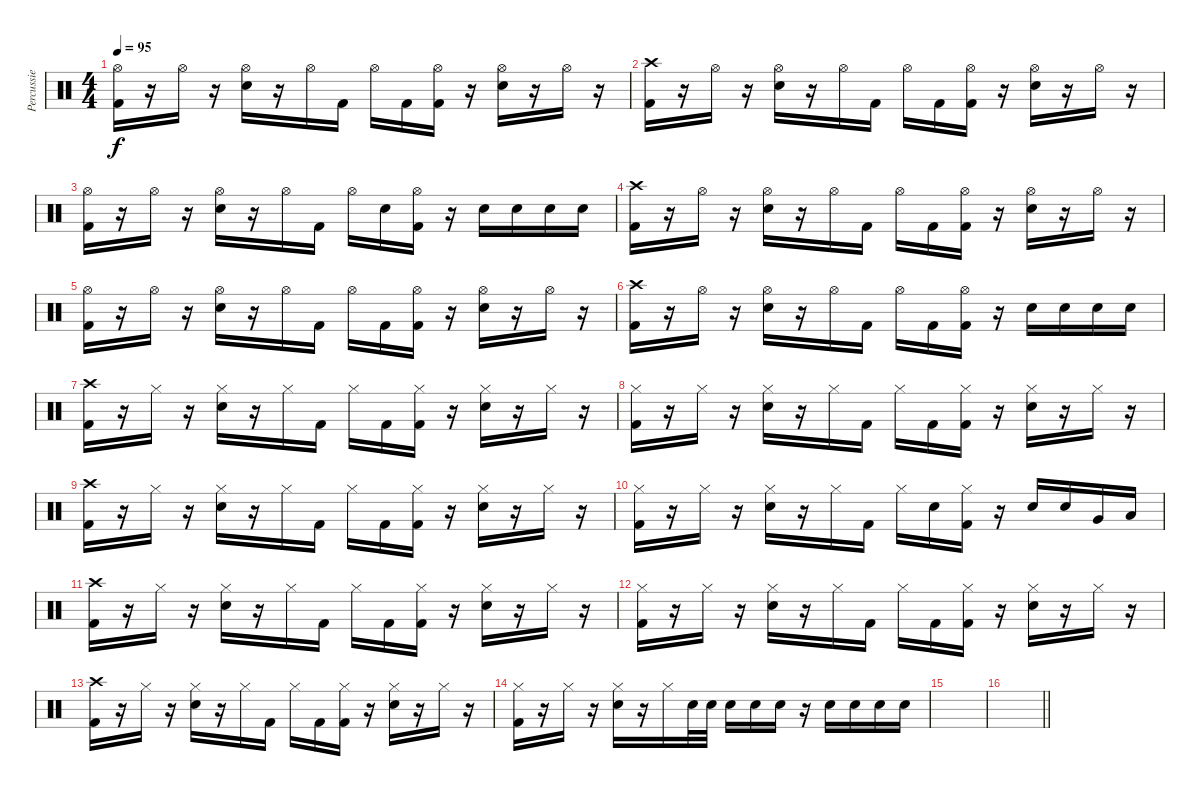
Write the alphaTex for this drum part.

\track ("Percussie" "Percussie") {instrument percussion}
\staff {score}
\articulation defaults
\ts (4 4)
\tempo 95
\clef neutral
\ks c
("Hi-Hat (open)" "Kick (hit) 2").16{dy f} r.16 "Hi-Hat (open)".16 r.16 ("Hi-Hat (open)" "Electric Snare (hit)").16 r.16 "Hi-Hat (open)".16 "Kick (hit) 2".16 "Hi-Hat (open)".16 "Kick (hit) 2".16 ("Hi-Hat (open)" "Kick (hit) 2").16 r.16 ("Hi-Hat (open)" "Electric Snare (hit)").16 r.16 "Hi-Hat (open)".16 r.16 |
("Crash high (hit)" "Kick (hit) 2").16 r.16 "Hi-Hat (open)".16 r.16 ("Hi-Hat (open)" "Electric Snare (hit)").16 r.16 "Hi-Hat (open)".16 "Kick (hit) 2".16 "Hi-Hat (open)".16 "Kick (hit) 2".16 ("Hi-Hat (open)" "Kick (hit) 2").16 r.16 ("Hi-Hat (open)" "Electric Snare (hit)").16 r.16 "Hi-Hat (open)".16 r.16 |
("Hi-Hat (open)" "Kick (hit) 2").16 r.16 "Hi-Hat (open)".16 r.16 ("Hi-Hat (open)" "Electric Snare (hit)").16 r.16 "Hi-Hat (open)".16 "Kick (hit) 2".16 "Hi-Hat (open)".16 "Electric Snare (hit)".16 ("Hi-Hat (open)" "Kick (hit) 2").16 r.16 "Electric Snare (hit)".16 "Electric Snare (hit)".16 "Electric Snare (hit)".16 "Electric Snare (hit)".16 |
("Crash high (hit)" "Kick (hit) 2").16 r.16 "Hi-Hat (open)".16 r.16 ("Hi-Hat (open)" "Electric Snare (hit)").16 r.16 "Hi-Hat (open)".16 "Kick (hit) 2".16 "Hi-Hat (open)".16 "Kick (hit) 2".16 ("Hi-Hat (open)" "Kick (hit) 2").16 r.16 ("Hi-Hat (open)" "Electric Snare (hit)").16 r.16 "Hi-Hat (open)".16 r.16 |
("Hi-Hat (open)" "Kick (hit) 2").16 r.16 "Hi-Hat (open)".16 r.16 ("Hi-Hat (open)" "Electric Snare (hit)").16 r.16 "Hi-Hat (open)".16 "Kick (hit) 2".16 "Hi-Hat (open)".16 "Kick (hit) 2".16 ("Hi-Hat (open)" "Kick (hit) 2").16 r.16 ("Hi-Hat (open)" "Electric Snare (hit)").16 r.16 "Hi-Hat (open)".16 r.16 |
("Crash high (hit)" "Kick (hit) 2").16 r.16 "Hi-Hat (open)".16 r.16 ("Hi-Hat (open)" "Electric Snare (hit)").16 r.16 "Hi-Hat (open)".16 "Kick (hit) 2".16 "Hi-Hat (open)".16 "Kick (hit) 2".16 ("Hi-Hat (open)" "Kick (hit) 2").16 r.16 "Electric Snare (hit)".16 "Electric Snare (hit)".16 "Electric Snare (hit)".16 "Electric Snare (hit)".16 |
("Crash high (hit)" "Kick (hit) 2").16 r.16 "Hi-Hat (closed)".16 r.16 ("Hi-Hat (closed)" "Electric Snare (hit)").16 r.16 "Hi-Hat (closed)".16 "Kick (hit) 2".16 "Hi-Hat (closed)".16 "Kick (hit) 2".16 ("Hi-Hat (closed)" "Kick (hit) 2").16 r.16 ("Hi-Hat (closed)" "Electric Snare (hit)").16 r.16 "Hi-Hat (closed)".16 r.16 |
("Hi-Hat (closed)" "Kick (hit) 2").16 r.16 "Hi-Hat (closed)".16 r.16 ("Hi-Hat (closed)" "Electric Snare (hit)").16 r.16 "Hi-Hat (closed)".16 "Kick (hit) 2".16 "Hi-Hat (closed)".16 "Kick (hit) 2".16 ("Hi-Hat (closed)" "Kick (hit) 2").16 r.16 ("Hi-Hat (closed)" "Electric Snare (hit)").16 r.16 "Hi-Hat (closed)".16 r.16 |
("Crash high (hit)" "Kick (hit) 2").16 r.16 "Hi-Hat (closed)".16 r.16 ("Hi-Hat (closed)" "Electric Snare (hit)").16 r.16 "Hi-Hat (closed)".16 "Kick (hit) 2".16 "Hi-Hat (closed)".16 "Kick (hit) 2".16 ("Hi-Hat (closed)" "Kick (hit) 2").16 r.16 ("Hi-Hat (closed)" "Electric Snare (hit)").16 r.16 "Hi-Hat (closed)".16 r.16 |
("Hi-Hat (closed)" "Kick (hit) 2").16 r.16 "Hi-Hat (closed)".16 r.16 ("Hi-Hat (closed)" "Electric Snare (hit)").16 r.16 "Hi-Hat (closed)".16 "Kick (hit) 2".16 "Hi-Hat (closed)".16 "Electric Snare (hit)".16 ("Hi-Hat (closed)" "Kick (hit) 2").16 r.16 "Electric Snare (hit)".16 "Electric Snare (hit)".16 "Very Low Tom (hit)".16 "Low Tom (hit)".16 |
("Crash high (hit)" "Kick (hit) 2").16 r.16 "Hi-Hat (closed)".16 r.16 ("Hi-Hat (closed)" "Electric Snare (hit)").16 r.16 "Hi-Hat (closed)".16 "Kick (hit) 2".16 "Hi-Hat (closed)".16 "Kick (hit) 2".16 ("Hi-Hat (closed)" "Kick (hit) 2").16 r.16 ("Hi-Hat (closed)" "Electric Snare (hit)").16 r.16 "Hi-Hat (closed)".16 r.16 |
("Hi-Hat (closed)" "Kick (hit) 2").16 r.16 "Hi-Hat (closed)".16 r.16 ("Hi-Hat (closed)" "Electric Snare (hit)").16 r.16 "Hi-Hat (closed)".16 "Kick (hit) 2".16 "Hi-Hat (closed)".16 "Kick (hit) 2".16 ("Hi-Hat (closed)" "Kick (hit) 2").16 r.16 ("Hi-Hat (closed)" "Electric Snare (hit)").16 r.16 "Hi-Hat (closed)".16 r.16 |
("Crash high (hit)" "Kick (hit) 2").16 r.16 "Hi-Hat (closed)".16 r.16 ("Hi-Hat (closed)" "Electric Snare (hit)").16 r.16 "Hi-Hat (closed)".16 "Kick (hit) 2".16 "Hi-Hat (closed)".16 "Kick (hit) 2".16 ("Hi-Hat (closed)" "Kick (hit) 2").16 r.16 ("Hi-Hat (closed)" "Electric Snare (hit)").16 r.16 "Hi-Hat (closed)".16 r.16 |
("Hi-Hat (closed)" "Kick (hit) 2").16 r.16 "Hi-Hat (closed)".16 r.16 ("Hi-Hat (closed)" "Electric Snare (hit)").16 r.16 "Hi-Hat (closed)".16 "Electric Snare (hit)".32 "Electric Snare (hit)".32 "Electric Snare (hit)".16 "Electric Snare (hit)".16 "Electric Snare (hit)".16 r.16 "Electric Snare (hit)".16 "Electric Snare (hit)".16 "Electric Snare (hit)".16 "Electric Snare (hit)".16 |
|
\barLineRight lightlight
